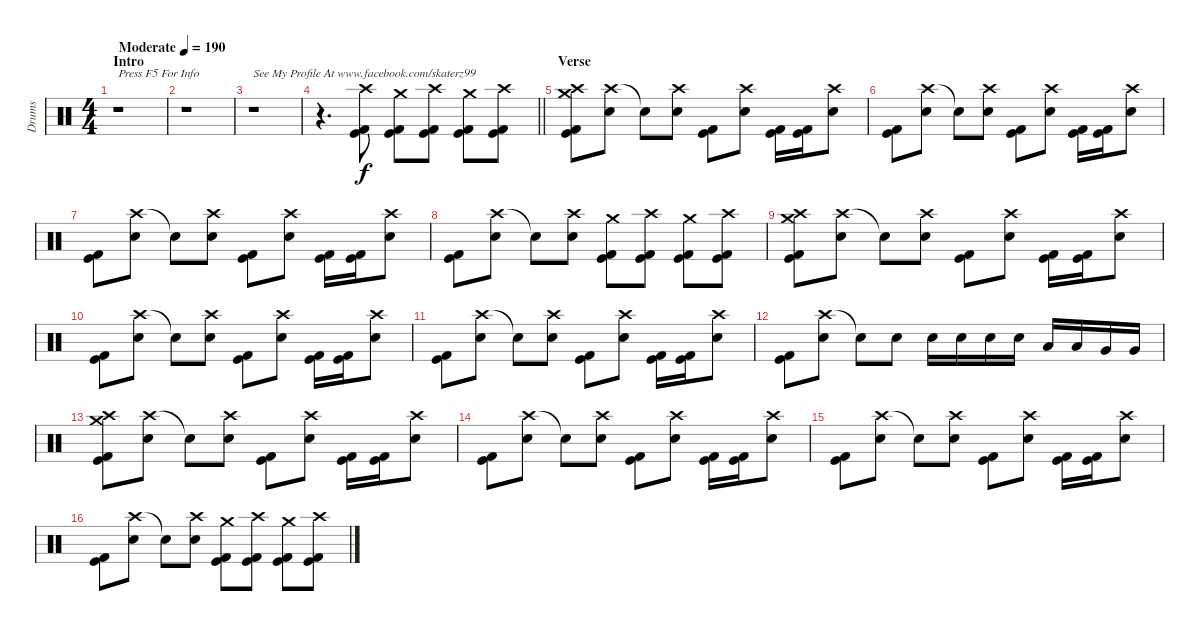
\track ("Drums" "Drums") {instrument percussion}
\staff {score}
\articulation defaults
\ts (4 4)
\section ("" "Intro")
\tempo (190 "Moderate")
\clef neutral
\ks c
r.1{txt "Press F5 For Info" dy f} |
r.1 |
r.1{txt "See My Profile At www.facebook.com/skaterz99"} |
\barLineRight lightlight
r.4{d} ("Crash high (hit)" "Kick (hit)" "Kick (hit) 2").8 ("Crash medium (hit)" "Kick (hit)" "Kick (hit) 2").8 ("Crash high (hit)" "Kick (hit)" "Kick (hit) 2").8 ("Crash medium (hit)" "Kick (hit)" "Kick (hit) 2").8 ("Crash high (hit)" "Kick (hit)" "Kick (hit) 2").8 |
\section ("" "Verse")
("Crash medium (hit)" "Crash high (hit)" "Kick (hit)" "Kick (hit) 2").8 ("Crash high (hit)" "Electric Snare (hit)").8 "Snare (hit)"{t}.8 ("Crash high (hit)" "Electric Snare (hit)").8 ("Kick (hit)" "Kick (hit) 2").8 ("Crash high (hit)" "Electric Snare (hit)").8 ("Kick (hit)" "Kick (hit) 2").16 ("Kick (hit)" "Kick (hit) 2").16 ("Crash high (hit)" "Electric Snare (hit)").8 |
("Kick (hit)" "Kick (hit) 2").8 ("Crash high (hit)" "Electric Snare (hit)").8 "Snare (hit)"{t}.8 ("Crash high (hit)" "Electric Snare (hit)").8 ("Kick (hit)" "Kick (hit) 2").8 ("Crash high (hit)" "Electric Snare (hit)").8 ("Kick (hit)" "Kick (hit) 2").16 ("Kick (hit)" "Kick (hit) 2").16 ("Crash high (hit)" "Electric Snare (hit)").8 |
("Kick (hit)" "Kick (hit) 2").8 ("Crash high (hit)" "Electric Snare (hit)").8 "Snare (hit)"{t}.8 ("Crash high (hit)" "Electric Snare (hit)").8 ("Kick (hit)" "Kick (hit) 2").8 ("Crash high (hit)" "Electric Snare (hit)").8 ("Kick (hit)" "Kick (hit) 2").16 ("Kick (hit)" "Kick (hit) 2").16 ("Crash high (hit)" "Electric Snare (hit)").8 |
("Kick (hit)" "Kick (hit) 2").8 ("Crash high (hit)" "Electric Snare (hit)").8 "Snare (hit)"{t}.8 ("Crash high (hit)" "Electric Snare (hit)").8 ("Crash medium (hit)" "Kick (hit)" "Kick (hit) 2").8 ("Crash high (hit)" "Kick (hit)" "Kick (hit) 2").8 ("Crash medium (hit)" "Kick (hit)" "Kick (hit) 2").8 ("Crash high (hit)" "Kick (hit)" "Kick (hit) 2").8 |
("Crash medium (hit)" "Crash high (hit)" "Kick (hit)" "Kick (hit) 2").8 ("Crash high (hit)" "Electric Snare (hit)").8 "Snare (hit)"{t}.8 ("Crash high (hit)" "Electric Snare (hit)").8 ("Kick (hit)" "Kick (hit) 2").8 ("Crash high (hit)" "Electric Snare (hit)").8 ("Kick (hit)" "Kick (hit) 2").16 ("Kick (hit)" "Kick (hit) 2").16 ("Crash high (hit)" "Electric Snare (hit)").8 |
("Kick (hit)" "Kick (hit) 2").8 ("Crash high (hit)" "Electric Snare (hit)").8 "Snare (hit)"{t}.8 ("Crash high (hit)" "Electric Snare (hit)").8 ("Kick (hit)" "Kick (hit) 2").8 ("Crash high (hit)" "Electric Snare (hit)").8 ("Kick (hit)" "Kick (hit) 2").16 ("Kick (hit)" "Kick (hit) 2").16 ("Crash high (hit)" "Electric Snare (hit)").8 |
("Kick (hit)" "Kick (hit) 2").8 ("Crash high (hit)" "Electric Snare (hit)").8 "Snare (hit)"{t}.8 ("Crash high (hit)" "Electric Snare (hit)").8 ("Kick (hit)" "Kick (hit) 2").8 ("Crash high (hit)" "Electric Snare (hit)").8 ("Kick (hit)" "Kick (hit) 2").16 ("Kick (hit)" "Kick (hit) 2").16 ("Crash high (hit)" "Electric Snare (hit)").8 |
("Kick (hit)" "Kick (hit) 2").8 ("Crash high (hit)" "Electric Snare (hit)").8 "Snare (hit)"{t}.8 "Electric Snare (hit)".8 "Electric Snare (hit)".16 "Electric Snare (hit)".16 "Electric Snare (hit)".16 "Electric Snare (hit)".16 "Low Tom (hit)".16 "Low Tom (hit)".16 "Very Low Tom (hit)".16 "Very Low Tom (hit)".16 |
("Crash medium (hit)" "Crash high (hit)" "Kick (hit)" "Kick (hit) 2").8 ("Crash high (hit)" "Electric Snare (hit)").8 "Snare (hit)"{t}.8 ("Crash high (hit)" "Electric Snare (hit)").8 ("Kick (hit)" "Kick (hit) 2").8 ("Crash high (hit)" "Electric Snare (hit)").8 ("Kick (hit)" "Kick (hit) 2").16 ("Kick (hit)" "Kick (hit) 2").16 ("Crash high (hit)" "Electric Snare (hit)").8 |
("Kick (hit)" "Kick (hit) 2").8 ("Crash high (hit)" "Electric Snare (hit)").8 "Snare (hit)"{t}.8 ("Crash high (hit)" "Electric Snare (hit)").8 ("Kick (hit)" "Kick (hit) 2").8 ("Crash high (hit)" "Electric Snare (hit)").8 ("Kick (hit)" "Kick (hit) 2").16 ("Kick (hit)" "Kick (hit) 2").16 ("Crash high (hit)" "Electric Snare (hit)").8 |
("Kick (hit)" "Kick (hit) 2").8 ("Crash high (hit)" "Electric Snare (hit)").8 "Snare (hit)"{t}.8 ("Crash high (hit)" "Electric Snare (hit)").8 ("Kick (hit)" "Kick (hit) 2").8 ("Crash high (hit)" "Electric Snare (hit)").8 ("Kick (hit)" "Kick (hit) 2").16 ("Kick (hit)" "Kick (hit) 2").16 ("Crash high (hit)" "Electric Snare (hit)").8 |
("Kick (hit)" "Kick (hit) 2").8 ("Crash high (hit)" "Electric Snare (hit)").8 "Snare (hit)"{t}.8 ("Crash high (hit)" "Electric Snare (hit)").8 ("Crash medium (hit)" "Kick (hit)" "Kick (hit) 2").8 ("Crash high (hit)" "Kick (hit)" "Kick (hit) 2").8 ("Crash medium (hit)" "Kick (hit)" "Kick (hit) 2").8 ("Crash high (hit)" "Kick (hit)" "Kick (hit) 2").8
